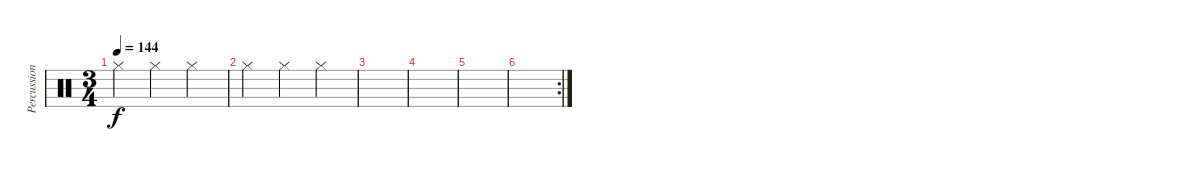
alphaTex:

\track ("Percussions 2" "Percussion") {instrument percussion}
\staff {score}
\articulation defaults
\ts (3 4)
\tempo 144
\clef neutral
\ks c "Hi-Hat (closed)".4{dy f} "Hi-Hat (closed)".4 "Hi-Hat (closed)".4
|
"Hi-Hat (closed)".4 "Hi-Hat (closed)".4 "Hi-Hat (closed)".4 |
|
|
|
\rc 2
